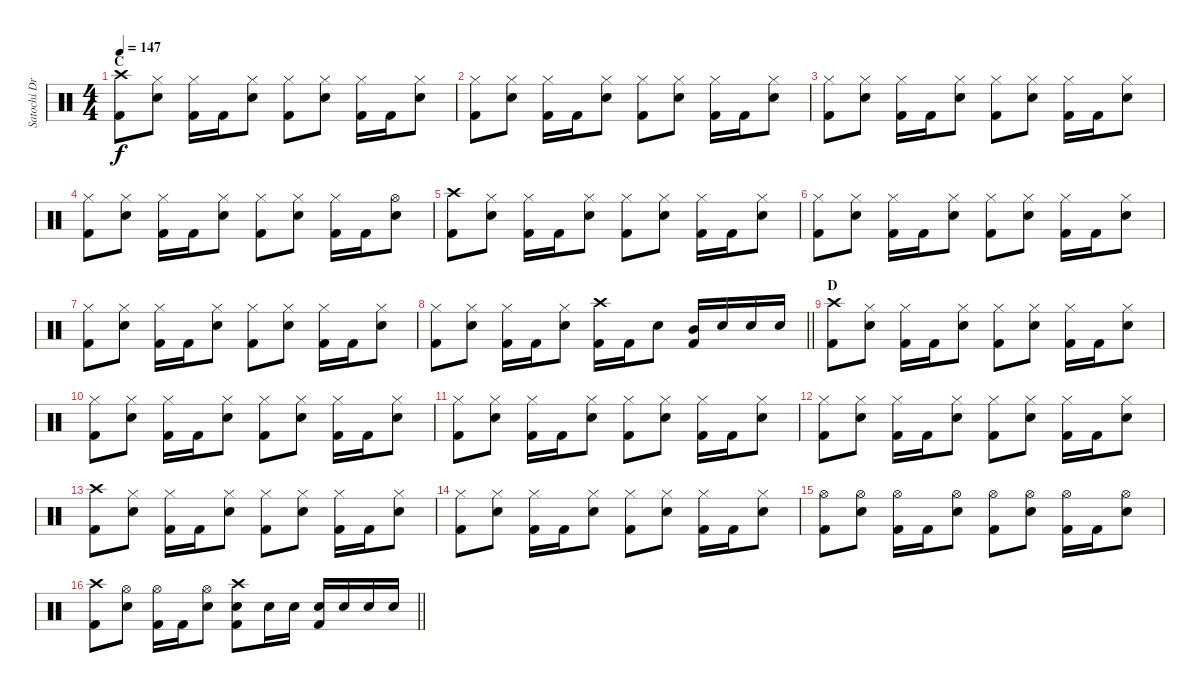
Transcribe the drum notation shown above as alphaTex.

\track ("Satochi Drums" "Satochi Dr") {instrument percussion}
\staff {score}
\articulation defaults
\ts (4 4)
\section ("" "C")
\tempo 147
\clef neutral
\ks c
("Crash high (hit)" "Kick (hit) 2").8{dy f} ("Hi-Hat (closed)" "Snare (hit) 2").8 ("Hi-Hat (closed)" "Kick (hit) 2").16 "Kick (hit) 2".16 ("Hi-Hat (closed)" "Snare (hit) 2").8 ("Hi-Hat (closed)" "Kick (hit) 2").8 ("Hi-Hat (closed)" "Snare (hit) 2").8 ("Hi-Hat (closed)" "Kick (hit) 2").16 "Kick (hit) 2".16 ("Hi-Hat (closed)" "Snare (hit) 2").8 |
("Hi-Hat (closed)" "Kick (hit) 2").8 ("Hi-Hat (closed)" "Snare (hit) 2").8 ("Hi-Hat (closed)" "Kick (hit) 2").16 "Kick (hit) 2".16 ("Hi-Hat (closed)" "Snare (hit) 2").8 ("Hi-Hat (closed)" "Kick (hit) 2").8 ("Hi-Hat (closed)" "Snare (hit) 2").8 ("Hi-Hat (closed)" "Kick (hit) 2").16 "Kick (hit) 2".16 ("Hi-Hat (closed)" "Snare (hit) 2").8 |
("Hi-Hat (closed)" "Kick (hit) 2").8 ("Hi-Hat (closed)" "Snare (hit) 2").8 ("Hi-Hat (closed)" "Kick (hit) 2").16 "Kick (hit) 2".16 ("Hi-Hat (closed)" "Snare (hit) 2").8 ("Hi-Hat (closed)" "Kick (hit) 2").8 ("Hi-Hat (closed)" "Snare (hit) 2").8 ("Hi-Hat (closed)" "Kick (hit) 2").16 "Kick (hit) 2".16 ("Hi-Hat (closed)" "Snare (hit) 2").8 |
("Hi-Hat (closed)" "Kick (hit) 2").8 ("Hi-Hat (closed)" "Snare (hit) 2").8 ("Hi-Hat (closed)" "Kick (hit) 2").16 "Kick (hit) 2".16 ("Hi-Hat (closed)" "Snare (hit) 2").8 ("Hi-Hat (closed)" "Kick (hit) 2").8 ("Hi-Hat (closed)" "Snare (hit) 2").8 ("Hi-Hat (closed)" "Kick (hit) 2").16 "Kick (hit) 2".16 ("Hi-Hat (open)" "Snare (hit) 2").8 |
("Crash high (hit)" "Kick (hit) 2").8 ("Hi-Hat (closed)" "Snare (hit) 2").8 ("Hi-Hat (closed)" "Kick (hit) 2").16 "Kick (hit) 2".16 ("Hi-Hat (closed)" "Snare (hit) 2").8 ("Hi-Hat (closed)" "Kick (hit) 2").8 ("Hi-Hat (closed)" "Snare (hit) 2").8 ("Hi-Hat (closed)" "Kick (hit) 2").16 "Kick (hit) 2".16 ("Hi-Hat (closed)" "Snare (hit) 2").8 |
("Hi-Hat (closed)" "Kick (hit) 2").8 ("Hi-Hat (closed)" "Snare (hit) 2").8 ("Hi-Hat (closed)" "Kick (hit) 2").16 "Kick (hit) 2".16 ("Hi-Hat (closed)" "Snare (hit) 2").8 ("Hi-Hat (closed)" "Kick (hit) 2").8 ("Hi-Hat (closed)" "Snare (hit) 2").8 ("Hi-Hat (closed)" "Kick (hit) 2").16 "Kick (hit) 2".16 ("Hi-Hat (closed)" "Snare (hit) 2").8 |
("Hi-Hat (closed)" "Kick (hit) 2").8 ("Hi-Hat (closed)" "Snare (hit) 2").8 ("Hi-Hat (closed)" "Kick (hit) 2").16 "Kick (hit) 2".16 ("Hi-Hat (closed)" "Snare (hit) 2").8 ("Hi-Hat (closed)" "Kick (hit) 2").8 ("Hi-Hat (closed)" "Snare (hit) 2").8 ("Hi-Hat (closed)" "Kick (hit) 2").16 "Kick (hit) 2".16 ("Hi-Hat (closed)" "Snare (hit) 2").8 |
\barLineRight lightlight
("Hi-Hat (closed)" "Kick (hit) 2").8 ("Hi-Hat (closed)" "Snare (hit) 2").8 ("Hi-Hat (closed)" "Kick (hit) 2").16 "Kick (hit) 2".16 ("Hi-Hat (closed)" "Snare (hit) 2").8 ("Crash high (hit)" "Kick (hit) 2").16 "Kick (hit) 2".16 "Snare (hit) 2".8 ("Mid Tom (hit)" "Kick (hit) 2").16 "Snare (hit) 2".16 "Snare (hit) 2".16 "Snare (hit) 2".16 |
\section ("" "D")
("Crash high (hit)" "Kick (hit) 2").8 ("Hi-Hat (closed)" "Snare (hit) 2").8 ("Hi-Hat (closed)" "Kick (hit) 2").16 "Kick (hit) 2".16 ("Hi-Hat (closed)" "Snare (hit) 2").8 ("Hi-Hat (closed)" "Kick (hit) 2").8 ("Hi-Hat (closed)" "Snare (hit) 2").8 ("Hi-Hat (closed)" "Kick (hit) 2").16 "Kick (hit) 2".16 ("Hi-Hat (closed)" "Snare (hit) 2").8 |
("Hi-Hat (closed)" "Kick (hit) 2").8 ("Hi-Hat (closed)" "Snare (hit) 2").8 ("Hi-Hat (closed)" "Kick (hit) 2").16 "Kick (hit) 2".16 ("Hi-Hat (closed)" "Snare (hit) 2").8 ("Hi-Hat (closed)" "Kick (hit) 2").8 ("Hi-Hat (closed)" "Snare (hit) 2").8 ("Hi-Hat (closed)" "Kick (hit) 2").16 "Kick (hit) 2".16 ("Hi-Hat (closed)" "Snare (hit) 2").8 |
("Hi-Hat (closed)" "Kick (hit) 2").8 ("Hi-Hat (closed)" "Snare (hit) 2").8 ("Hi-Hat (closed)" "Kick (hit) 2").16 "Kick (hit) 2".16 ("Hi-Hat (closed)" "Snare (hit) 2").8 ("Hi-Hat (closed)" "Kick (hit) 2").8 ("Hi-Hat (closed)" "Snare (hit) 2").8 ("Hi-Hat (closed)" "Kick (hit) 2").16 "Kick (hit) 2".16 ("Hi-Hat (closed)" "Snare (hit) 2").8 |
("Hi-Hat (closed)" "Kick (hit) 2").8 ("Hi-Hat (closed)" "Snare (hit) 2").8 ("Hi-Hat (closed)" "Kick (hit) 2").16 "Kick (hit) 2".16 ("Hi-Hat (closed)" "Snare (hit) 2").8 ("Hi-Hat (closed)" "Kick (hit) 2").8 ("Hi-Hat (closed)" "Snare (hit) 2").8 ("Hi-Hat (closed)" "Kick (hit) 2").16 "Kick (hit) 2".16 ("Hi-Hat (closed)" "Snare (hit) 2").8 |
("Crash high (hit)" "Kick (hit) 2").8 ("Hi-Hat (closed)" "Snare (hit) 2").8 ("Hi-Hat (closed)" "Kick (hit) 2").16 "Kick (hit) 2".16 ("Hi-Hat (closed)" "Snare (hit) 2").8 ("Hi-Hat (closed)" "Kick (hit) 2").8 ("Hi-Hat (closed)" "Snare (hit) 2").8 ("Hi-Hat (closed)" "Kick (hit) 2").16 "Kick (hit) 2".16 ("Hi-Hat (closed)" "Snare (hit) 2").8 |
("Hi-Hat (closed)" "Kick (hit) 2").8 ("Hi-Hat (closed)" "Snare (hit) 2").8 ("Hi-Hat (closed)" "Kick (hit) 2").16 "Kick (hit) 2".16 ("Hi-Hat (closed)" "Snare (hit) 2").8 ("Hi-Hat (closed)" "Kick (hit) 2").8 ("Hi-Hat (closed)" "Snare (hit) 2").8 ("Hi-Hat (closed)" "Kick (hit) 2").16 "Kick (hit) 2".16 ("Hi-Hat (closed)" "Snare (hit) 2").8 |
("Hi-Hat (open)" "Kick (hit) 2").8 ("Hi-Hat (open)" "Snare (hit) 2").8 ("Hi-Hat (open)" "Kick (hit) 2").16 "Kick (hit) 2".16 ("Hi-Hat (open)" "Snare (hit) 2").8 ("Hi-Hat (open)" "Kick (hit) 2").8 ("Hi-Hat (open)" "Snare (hit) 2").8 ("Hi-Hat (open)" "Kick (hit) 2").16 "Kick (hit) 2".16 ("Hi-Hat (open)" "Snare (hit) 2").8 |
\barLineRight lightlight
("Crash high (hit)" "Kick (hit) 2").8 ("Hi-Hat (open)" "Snare (hit) 2").8 ("Hi-Hat (open)" "Kick (hit) 2").16 "Kick (hit) 2".16 ("Hi-Hat (open)" "Snare (hit) 2").8 ("Crash high (hit)" "Snare (hit) 2" "Kick (hit) 2").8 "Snare (hit) 2".16 "Snare (hit) 2".16 ("Snare (hit) 2" "Kick (hit) 2").16 "Snare (hit) 2".16 "Snare (hit) 2".16 "Snare (hit) 2".16
